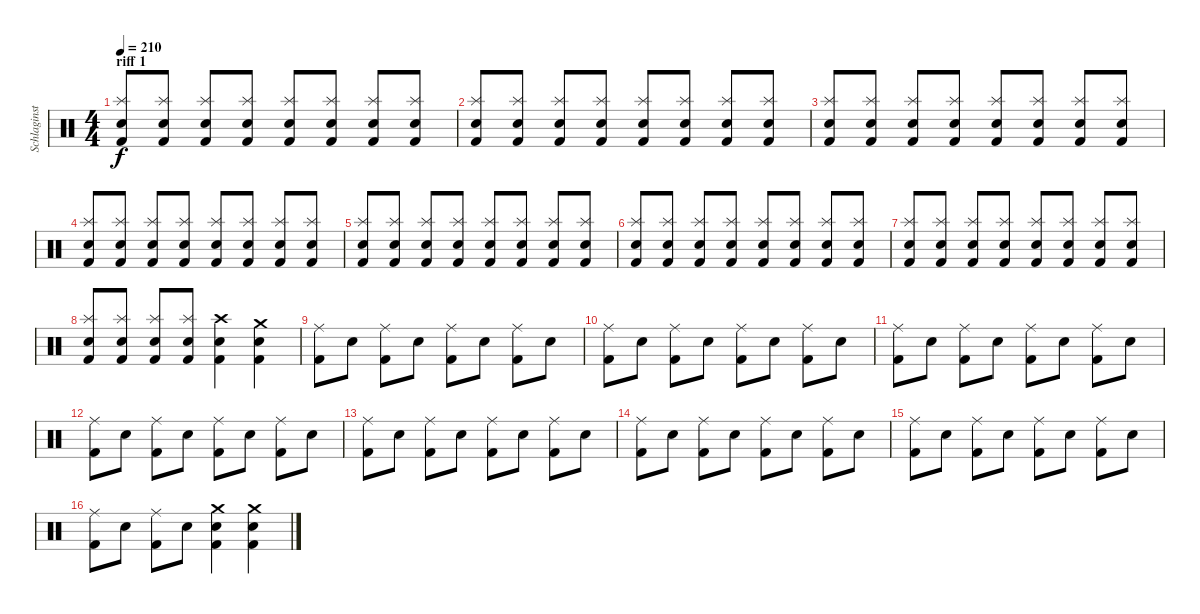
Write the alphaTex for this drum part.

\track ("Schlaginstrumente - Auswahl" "Schlaginst") {instrument percussion}
\staff {score}
\articulation defaults
\ts (4 4)
\section ("" "riff 1")
\tempo 210
\clef neutral
\ks c
("Electric Snare (hit)" "Splash (hit)" "Kick (hit) 2").8{dy f} ("Electric Snare (hit)" "Splash (hit)" "Kick (hit) 2").8 ("Electric Snare (hit)" "Splash (hit)" "Kick (hit) 2").8 ("Electric Snare (hit)" "Splash (hit)" "Kick (hit) 2").8 ("Electric Snare (hit)" "Splash (hit)" "Kick (hit) 2").8 ("Electric Snare (hit)" "Splash (hit)" "Kick (hit) 2").8 ("Electric Snare (hit)" "Splash (hit)" "Kick (hit) 2").8 ("Electric Snare (hit)" "Splash (hit)" "Kick (hit) 2").8 |
("Electric Snare (hit)" "Splash (hit)" "Kick (hit) 2").8 ("Electric Snare (hit)" "Splash (hit)" "Kick (hit) 2").8 ("Electric Snare (hit)" "Splash (hit)" "Kick (hit) 2").8 ("Electric Snare (hit)" "Splash (hit)" "Kick (hit) 2").8 ("Electric Snare (hit)" "Splash (hit)" "Kick (hit) 2").8 ("Electric Snare (hit)" "Splash (hit)" "Kick (hit) 2").8 ("Electric Snare (hit)" "Splash (hit)" "Kick (hit) 2").8 ("Electric Snare (hit)" "Splash (hit)" "Kick (hit) 2").8 |
("Electric Snare (hit)" "Splash (hit)" "Kick (hit) 2").8 ("Electric Snare (hit)" "Splash (hit)" "Kick (hit) 2").8 ("Electric Snare (hit)" "Splash (hit)" "Kick (hit) 2").8 ("Electric Snare (hit)" "Splash (hit)" "Kick (hit) 2").8 ("Electric Snare (hit)" "Splash (hit)" "Kick (hit) 2").8 ("Electric Snare (hit)" "Splash (hit)" "Kick (hit) 2").8 ("Electric Snare (hit)" "Splash (hit)" "Kick (hit) 2").8 ("Electric Snare (hit)" "Splash (hit)" "Kick (hit) 2").8 |
("Electric Snare (hit)" "Splash (hit)" "Kick (hit) 2").8 ("Electric Snare (hit)" "Splash (hit)" "Kick (hit) 2").8 ("Electric Snare (hit)" "Splash (hit)" "Kick (hit) 2").8 ("Electric Snare (hit)" "Splash (hit)" "Kick (hit) 2").8 ("Electric Snare (hit)" "Splash (hit)" "Kick (hit) 2").8 ("Electric Snare (hit)" "Splash (hit)" "Kick (hit) 2").8 ("Electric Snare (hit)" "Splash (hit)" "Kick (hit) 2").8 ("Electric Snare (hit)" "Splash (hit)" "Kick (hit) 2").8 |
("Electric Snare (hit)" "Splash (hit)" "Kick (hit) 2").8 ("Electric Snare (hit)" "Splash (hit)" "Kick (hit) 2").8 ("Electric Snare (hit)" "Splash (hit)" "Kick (hit) 2").8 ("Electric Snare (hit)" "Splash (hit)" "Kick (hit) 2").8 ("Electric Snare (hit)" "Splash (hit)" "Kick (hit) 2").8 ("Electric Snare (hit)" "Splash (hit)" "Kick (hit) 2").8 ("Electric Snare (hit)" "Splash (hit)" "Kick (hit) 2").8 ("Electric Snare (hit)" "Splash (hit)" "Kick (hit) 2").8 |
("Electric Snare (hit)" "Splash (hit)" "Kick (hit) 2").8 ("Electric Snare (hit)" "Splash (hit)" "Kick (hit) 2").8 ("Electric Snare (hit)" "Splash (hit)" "Kick (hit) 2").8 ("Electric Snare (hit)" "Splash (hit)" "Kick (hit) 2").8 ("Electric Snare (hit)" "Splash (hit)" "Kick (hit) 2").8 ("Electric Snare (hit)" "Splash (hit)" "Kick (hit) 2").8 ("Electric Snare (hit)" "Splash (hit)" "Kick (hit) 2").8 ("Electric Snare (hit)" "Splash (hit)" "Kick (hit) 2").8 |
("Electric Snare (hit)" "Splash (hit)" "Kick (hit) 2").8 ("Electric Snare (hit)" "Splash (hit)" "Kick (hit) 2").8 ("Electric Snare (hit)" "Splash (hit)" "Kick (hit) 2").8 ("Electric Snare (hit)" "Splash (hit)" "Kick (hit) 2").8 ("Electric Snare (hit)" "Splash (hit)" "Kick (hit) 2").8 ("Electric Snare (hit)" "Splash (hit)" "Kick (hit) 2").8 ("Electric Snare (hit)" "Splash (hit)" "Kick (hit) 2").8 ("Electric Snare (hit)" "Splash (hit)" "Kick (hit) 2").8 |
("Electric Snare (hit)" "Splash (hit)" "Kick (hit) 2").8 ("Electric Snare (hit)" "Splash (hit)" "Kick (hit) 2").8 ("Electric Snare (hit)" "Splash (hit)" "Kick (hit) 2").8 ("Electric Snare (hit)" "Splash (hit)" "Kick (hit) 2").8 ("Electric Snare (hit)" "Crash high (hit)" "Kick (hit) 2").4 ("Electric Snare (hit)" "Crash medium (hit)" "Kick (hit) 2").4 |
("Ride (middle)" "Kick (hit) 2").8 "Electric Snare (hit)".8 ("Ride (middle)" "Kick (hit) 2").8 "Electric Snare (hit)".8 ("Ride (middle)" "Kick (hit) 2").8 "Electric Snare (hit)".8 ("Ride (middle)" "Kick (hit) 2").8 "Electric Snare (hit)".8 |
("Ride (middle)" "Kick (hit) 2").8 "Electric Snare (hit)".8 ("Ride (middle)" "Kick (hit) 2").8 "Electric Snare (hit)".8 ("Ride (middle)" "Kick (hit) 2").8 "Electric Snare (hit)".8 ("Ride (middle)" "Kick (hit) 2").8 "Electric Snare (hit)".8 |
("Ride (middle)" "Kick (hit) 2").8 "Electric Snare (hit)".8 ("Ride (middle)" "Kick (hit) 2").8 "Electric Snare (hit)".8 ("Ride (middle)" "Kick (hit) 2").8 "Electric Snare (hit)".8 ("Ride (middle)" "Kick (hit) 2").8 "Electric Snare (hit)".8 |
("Ride (middle)" "Kick (hit) 2").8 "Electric Snare (hit)".8 ("Ride (middle)" "Kick (hit) 2").8 "Electric Snare (hit)".8 ("Ride (middle)" "Kick (hit) 2").8 "Electric Snare (hit)".8 ("Ride (middle)" "Kick (hit) 2").8 "Electric Snare (hit)".8 |
("Ride (middle)" "Kick (hit) 2").8 "Electric Snare (hit)".8 ("Ride (middle)" "Kick (hit) 2").8 "Electric Snare (hit)".8 ("Ride (middle)" "Kick (hit) 2").8 "Electric Snare (hit)".8 ("Ride (middle)" "Kick (hit) 2").8 "Electric Snare (hit)".8 |
("Ride (middle)" "Kick (hit) 2").8 "Electric Snare (hit)".8 ("Ride (middle)" "Kick (hit) 2").8 "Electric Snare (hit)".8 ("Ride (middle)" "Kick (hit) 2").8 "Electric Snare (hit)".8 ("Ride (middle)" "Kick (hit) 2").8 "Electric Snare (hit)".8 |
("Ride (middle)" "Kick (hit) 2").8 "Electric Snare (hit)".8 ("Ride (middle)" "Kick (hit) 2").8 "Electric Snare (hit)".8 ("Ride (middle)" "Kick (hit) 2").8 "Electric Snare (hit)".8 ("Ride (middle)" "Kick (hit) 2").8 "Electric Snare (hit)".8 |
("Ride (middle)" "Kick (hit) 2").8 "Electric Snare (hit)".8 ("Ride (middle)" "Kick (hit) 2").8 "Electric Snare (hit)".8 ("Electric Snare (hit)" "Crash medium (hit)" "Kick (hit) 2").4 ("Electric Snare (hit)" "Crash medium (hit)" "Kick (hit) 2").4
